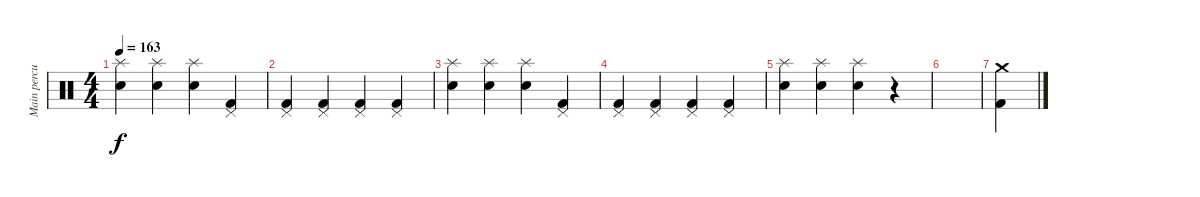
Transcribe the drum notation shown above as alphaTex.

\track ("Main percussion" "Main percu") {instrument percussion}
\staff {score}
\articulation defaults
\ts (4 4)
\tempo 163
\clef neutral
\ks c
("Electric Snare (hit)" "Splash (hit)").4{dy f} ("Electric Snare (hit)" "Splash (hit)").4 ("Electric Snare (hit)" "Splash (hit)").4 ("Kick (hit) 2" "Pedal Hi-Hat (hit)").4 |
("Kick (hit) 2" "Pedal Hi-Hat (hit)").4 ("Kick (hit) 2" "Pedal Hi-Hat (hit)").4 ("Kick (hit) 2" "Pedal Hi-Hat (hit)").4 ("Kick (hit) 2" "Pedal Hi-Hat (hit)").4 |
("Electric Snare (hit)" "Splash (hit)").4 ("Electric Snare (hit)" "Splash (hit)").4 ("Electric Snare (hit)" "Splash (hit)").4 ("Kick (hit) 2" "Pedal Hi-Hat (hit)").4 |
("Kick (hit) 2" "Pedal Hi-Hat (hit)").4 ("Kick (hit) 2" "Pedal Hi-Hat (hit)").4 ("Kick (hit) 2" "Pedal Hi-Hat (hit)").4 ("Kick (hit) 2" "Pedal Hi-Hat (hit)").4 |
("Electric Snare (hit)" "Splash (hit)").4 ("Electric Snare (hit)" "Splash (hit)").4 ("Electric Snare (hit)" "Splash (hit)").4 r.4 |
|
("Kick (hit) 2" "Crash medium (hit)").4
